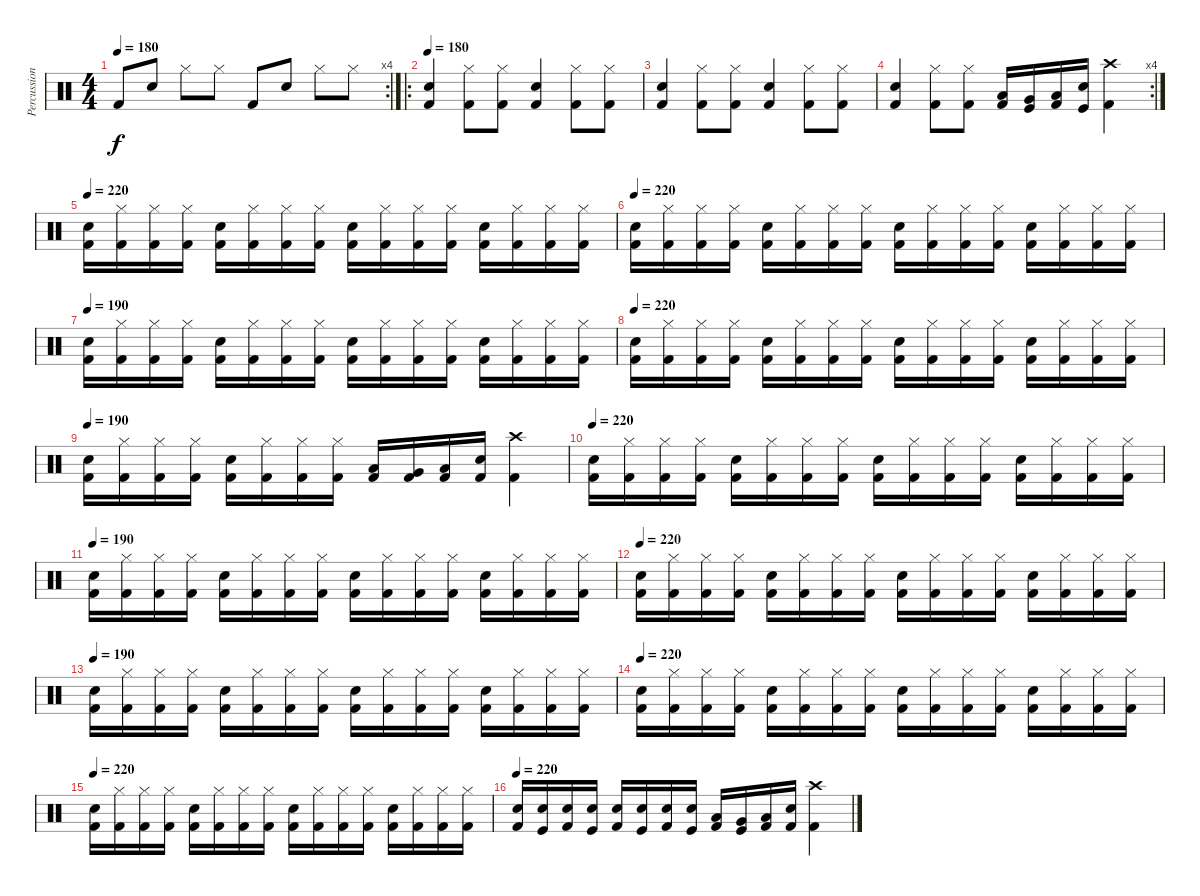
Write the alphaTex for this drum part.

\track ("Percussion" "Percussion") {instrument percussion}
\staff {score}
\articulation defaults
\rc 4
\ts (4 4)
\tempo 180
\clef neutral
\ks c "Kick (hit) 2".8{dy f} "Electric Snare (hit)".8 "Hi-Hat (closed)".8 "Hi-Hat (closed)".8 "Kick (hit) 2".8 "Electric Snare (hit)".8 "Hi-Hat (closed)".8 "Hi-Hat (closed)".8
|
\ro
\tempo 180
("Electric Snare (hit)" "Kick (hit) 2").4 ("Hi-Hat (closed)" "Kick (hit) 2").8 ("Hi-Hat (closed)" "Kick (hit) 2").8 ("Electric Snare (hit)" "Kick (hit) 2").4 ("Hi-Hat (closed)" "Kick (hit) 2").8 ("Hi-Hat (closed)" "Kick (hit) 2").8 |
("Electric Snare (hit)" "Kick (hit) 2").4 ("Hi-Hat (closed)" "Kick (hit) 2").8 ("Hi-Hat (closed)" "Kick (hit) 2").8 ("Electric Snare (hit)" "Kick (hit) 2").4 ("Hi-Hat (closed)" "Kick (hit) 2").8 ("Hi-Hat (closed)" "Kick (hit) 2").8 |
\rc 4
("Electric Snare (hit)" "Kick (hit) 2").4 ("Hi-Hat (closed)" "Kick (hit) 2").8 ("Hi-Hat (closed)" "Kick (hit) 2").8 ("Low Tom (hit)" "Kick (hit) 2").16 ("Very Low Tom (hit)" "Kick (hit)").16 ("Low Floor Tom (hit)" "Kick (hit) 2").16 ("Electric Snare (hit)" "Kick (hit)").16 ("Crash high (hit)" "Kick (hit) 2").4 |
\tempo 220
("Electric Snare (hit)" "Kick (hit) 2").16 ("Hi-Hat (closed)" "Kick (hit) 2").16 ("Hi-Hat (closed)" "Kick (hit) 2").16 ("Hi-Hat (closed)" "Kick (hit) 2").16 ("Electric Snare (hit)" "Kick (hit) 2").16 ("Hi-Hat (closed)" "Kick (hit) 2").16 ("Hi-Hat (closed)" "Kick (hit) 2").16 ("Hi-Hat (closed)" "Kick (hit) 2").16 ("Electric Snare (hit)" "Kick (hit) 2").16 ("Hi-Hat (closed)" "Kick (hit) 2").16 ("Hi-Hat (closed)" "Kick (hit) 2").16 ("Hi-Hat (closed)" "Kick (hit) 2").16 ("Electric Snare (hit)" "Kick (hit) 2").16 ("Hi-Hat (closed)" "Kick (hit) 2").16 ("Hi-Hat (closed)" "Kick (hit) 2").16 ("Hi-Hat (closed)" "Kick (hit) 2").16 |
\tempo 220
("Electric Snare (hit)" "Kick (hit) 2").16 ("Hi-Hat (closed)" "Kick (hit) 2").16 ("Hi-Hat (closed)" "Kick (hit) 2").16 ("Hi-Hat (closed)" "Kick (hit) 2").16 ("Electric Snare (hit)" "Kick (hit) 2").16 ("Hi-Hat (closed)" "Kick (hit) 2").16 ("Hi-Hat (closed)" "Kick (hit) 2").16 ("Hi-Hat (closed)" "Kick (hit) 2").16 ("Electric Snare (hit)" "Kick (hit) 2").16 ("Hi-Hat (closed)" "Kick (hit) 2").16 ("Hi-Hat (closed)" "Kick (hit) 2").16 ("Hi-Hat (closed)" "Kick (hit) 2").16 ("Electric Snare (hit)" "Kick (hit) 2").16 ("Hi-Hat (closed)" "Kick (hit) 2").16 ("Hi-Hat (closed)" "Kick (hit) 2").16 ("Hi-Hat (closed)" "Kick (hit) 2").16 |
\tempo 190
("Electric Snare (hit)" "Kick (hit) 2").16 ("Hi-Hat (closed)" "Kick (hit) 2").16 ("Hi-Hat (closed)" "Kick (hit) 2").16 ("Hi-Hat (closed)" "Kick (hit) 2").16 ("Electric Snare (hit)" "Kick (hit) 2").16 ("Hi-Hat (closed)" "Kick (hit) 2").16 ("Hi-Hat (closed)" "Kick (hit) 2").16 ("Hi-Hat (closed)" "Kick (hit) 2").16 ("Electric Snare (hit)" "Kick (hit) 2").16 ("Hi-Hat (closed)" "Kick (hit) 2").16 ("Hi-Hat (closed)" "Kick (hit) 2").16 ("Hi-Hat (closed)" "Kick (hit) 2").16 ("Electric Snare (hit)" "Kick (hit) 2").16 ("Hi-Hat (closed)" "Kick (hit) 2").16 ("Hi-Hat (closed)" "Kick (hit) 2").16 ("Hi-Hat (closed)" "Kick (hit) 2").16 |
\tempo 220
("Electric Snare (hit)" "Kick (hit) 2").16 ("Hi-Hat (closed)" "Kick (hit) 2").16 ("Hi-Hat (closed)" "Kick (hit) 2").16 ("Hi-Hat (closed)" "Kick (hit) 2").16 ("Electric Snare (hit)" "Kick (hit) 2").16 ("Hi-Hat (closed)" "Kick (hit) 2").16 ("Hi-Hat (closed)" "Kick (hit) 2").16 ("Hi-Hat (closed)" "Kick (hit) 2").16 ("Electric Snare (hit)" "Kick (hit) 2").16 ("Hi-Hat (closed)" "Kick (hit) 2").16 ("Hi-Hat (closed)" "Kick (hit) 2").16 ("Hi-Hat (closed)" "Kick (hit) 2").16 ("Electric Snare (hit)" "Kick (hit) 2").16 ("Hi-Hat (closed)" "Kick (hit) 2").16 ("Hi-Hat (closed)" "Kick (hit) 2").16 ("Hi-Hat (closed)" "Kick (hit) 2").16 |
\tempo 190
("Electric Snare (hit)" "Kick (hit) 2").16 ("Hi-Hat (closed)" "Kick (hit) 2").16 ("Hi-Hat (closed)" "Kick (hit) 2").16 ("Hi-Hat (closed)" "Kick (hit) 2").16 ("Electric Snare (hit)" "Kick (hit) 2").16 ("Hi-Hat (closed)" "Kick (hit) 2").16 ("Hi-Hat (closed)" "Kick (hit) 2").16 ("Hi-Hat (closed)" "Kick (hit) 2").16 ("Low Tom (hit)" "Kick (hit) 2").16 ("Very Low Tom (hit)" "Kick (hit) 2").16 ("Low Floor Tom (hit)" "Kick (hit) 2").16 ("Electric Snare (hit)" "Kick (hit) 2").16 ("Crash high (hit)" "Kick (hit) 2").4 |
\tempo 220
("Electric Snare (hit)" "Kick (hit) 2").16 ("Hi-Hat (closed)" "Kick (hit) 2").16 ("Hi-Hat (closed)" "Kick (hit) 2").16 ("Hi-Hat (closed)" "Kick (hit) 2").16 ("Electric Snare (hit)" "Kick (hit) 2").16 ("Hi-Hat (closed)" "Kick (hit) 2").16 ("Hi-Hat (closed)" "Kick (hit) 2").16 ("Hi-Hat (closed)" "Kick (hit) 2").16 ("Electric Snare (hit)" "Kick (hit) 2").16 ("Hi-Hat (closed)" "Kick (hit) 2").16 ("Hi-Hat (closed)" "Kick (hit) 2").16 ("Hi-Hat (closed)" "Kick (hit) 2").16 ("Electric Snare (hit)" "Kick (hit) 2").16 ("Hi-Hat (closed)" "Kick (hit) 2").16 ("Hi-Hat (closed)" "Kick (hit) 2").16 ("Hi-Hat (closed)" "Kick (hit) 2").16 |
\tempo 190
("Electric Snare (hit)" "Kick (hit) 2").16 ("Hi-Hat (closed)" "Kick (hit) 2").16 ("Hi-Hat (closed)" "Kick (hit) 2").16 ("Hi-Hat (closed)" "Kick (hit) 2").16 ("Electric Snare (hit)" "Kick (hit) 2").16 ("Hi-Hat (closed)" "Kick (hit) 2").16 ("Hi-Hat (closed)" "Kick (hit) 2").16 ("Hi-Hat (closed)" "Kick (hit) 2").16 ("Electric Snare (hit)" "Kick (hit) 2").16 ("Hi-Hat (closed)" "Kick (hit) 2").16 ("Hi-Hat (closed)" "Kick (hit) 2").16 ("Hi-Hat (closed)" "Kick (hit) 2").16 ("Electric Snare (hit)" "Kick (hit) 2").16 ("Hi-Hat (closed)" "Kick (hit) 2").16 ("Hi-Hat (closed)" "Kick (hit) 2").16 ("Hi-Hat (closed)" "Kick (hit) 2").16 |
\tempo 220
("Electric Snare (hit)" "Kick (hit) 2").16 ("Hi-Hat (closed)" "Kick (hit) 2").16 ("Hi-Hat (closed)" "Kick (hit) 2").16 ("Hi-Hat (closed)" "Kick (hit) 2").16 ("Electric Snare (hit)" "Kick (hit) 2").16 ("Hi-Hat (closed)" "Kick (hit) 2").16 ("Hi-Hat (closed)" "Kick (hit) 2").16 ("Hi-Hat (closed)" "Kick (hit) 2").16 ("Electric Snare (hit)" "Kick (hit) 2").16 ("Hi-Hat (closed)" "Kick (hit) 2").16 ("Hi-Hat (closed)" "Kick (hit) 2").16 ("Hi-Hat (closed)" "Kick (hit) 2").16 ("Electric Snare (hit)" "Kick (hit) 2").16 ("Hi-Hat (closed)" "Kick (hit) 2").16 ("Hi-Hat (closed)" "Kick (hit) 2").16 ("Hi-Hat (closed)" "Kick (hit) 2").16 |
\tempo 190
("Electric Snare (hit)" "Kick (hit) 2").16 ("Hi-Hat (closed)" "Kick (hit) 2").16 ("Hi-Hat (closed)" "Kick (hit) 2").16 ("Hi-Hat (closed)" "Kick (hit) 2").16 ("Electric Snare (hit)" "Kick (hit) 2").16 ("Hi-Hat (closed)" "Kick (hit) 2").16 ("Hi-Hat (closed)" "Kick (hit) 2").16 ("Hi-Hat (closed)" "Kick (hit) 2").16 ("Electric Snare (hit)" "Kick (hit) 2").16 ("Hi-Hat (closed)" "Kick (hit) 2").16 ("Hi-Hat (closed)" "Kick (hit) 2").16 ("Hi-Hat (closed)" "Kick (hit) 2").16 ("Electric Snare (hit)" "Kick (hit) 2").16 ("Hi-Hat (closed)" "Kick (hit) 2").16 ("Hi-Hat (closed)" "Kick (hit) 2").16 ("Hi-Hat (closed)" "Kick (hit) 2").16 |
\tempo 220
("Electric Snare (hit)" "Kick (hit) 2").16 ("Hi-Hat (closed)" "Kick (hit) 2").16 ("Hi-Hat (closed)" "Kick (hit) 2").16 ("Hi-Hat (closed)" "Kick (hit) 2").16 ("Electric Snare (hit)" "Kick (hit) 2").16 ("Hi-Hat (closed)" "Kick (hit) 2").16 ("Hi-Hat (closed)" "Kick (hit) 2").16 ("Hi-Hat (closed)" "Kick (hit) 2").16 ("Electric Snare (hit)" "Kick (hit) 2").16 ("Hi-Hat (closed)" "Kick (hit) 2").16 ("Hi-Hat (closed)" "Kick (hit) 2").16 ("Hi-Hat (closed)" "Kick (hit) 2").16 ("Electric Snare (hit)" "Kick (hit) 2").16 ("Hi-Hat (closed)" "Kick (hit) 2").16 ("Hi-Hat (closed)" "Kick (hit) 2").16 ("Hi-Hat (closed)" "Kick (hit) 2").16 |
\tempo 220
("Electric Snare (hit)" "Kick (hit) 2").16 ("Hi-Hat (closed)" "Kick (hit) 2").16 ("Hi-Hat (closed)" "Kick (hit) 2").16 ("Hi-Hat (closed)" "Kick (hit) 2").16 ("Electric Snare (hit)" "Kick (hit) 2").16 ("Hi-Hat (closed)" "Kick (hit) 2").16 ("Hi-Hat (closed)" "Kick (hit) 2").16 ("Hi-Hat (closed)" "Kick (hit) 2").16 ("Electric Snare (hit)" "Kick (hit) 2").16 ("Hi-Hat (closed)" "Kick (hit) 2").16 ("Hi-Hat (closed)" "Kick (hit) 2").16 ("Hi-Hat (closed)" "Kick (hit) 2").16 ("Electric Snare (hit)" "Kick (hit) 2").16 ("Hi-Hat (closed)" "Kick (hit) 2").16 ("Hi-Hat (closed)" "Kick (hit) 2").16 ("Hi-Hat (closed)" "Kick (hit) 2").16 |
\tempo 220
("Electric Snare (hit)" "Kick (hit) 2").16 ("Electric Snare (hit)" "Kick (hit)").16 ("Electric Snare (hit)" "Kick (hit) 2").16 ("Electric Snare (hit)" "Kick (hit)").16 ("Electric Snare (hit)" "Kick (hit) 2").16 ("Electric Snare (hit)" "Kick (hit)").16 ("Electric Snare (hit)" "Kick (hit) 2").16 ("Electric Snare (hit)" "Kick (hit)").16 ("Low Tom (hit)" "Kick (hit) 2").16 ("Very Low Tom (hit)" "Kick (hit)").16 ("Low Floor Tom (hit)" "Kick (hit) 2").16 ("Electric Snare (hit)" "Kick (hit) 2").16 ("Crash high (hit)" "Kick (hit) 2").4
